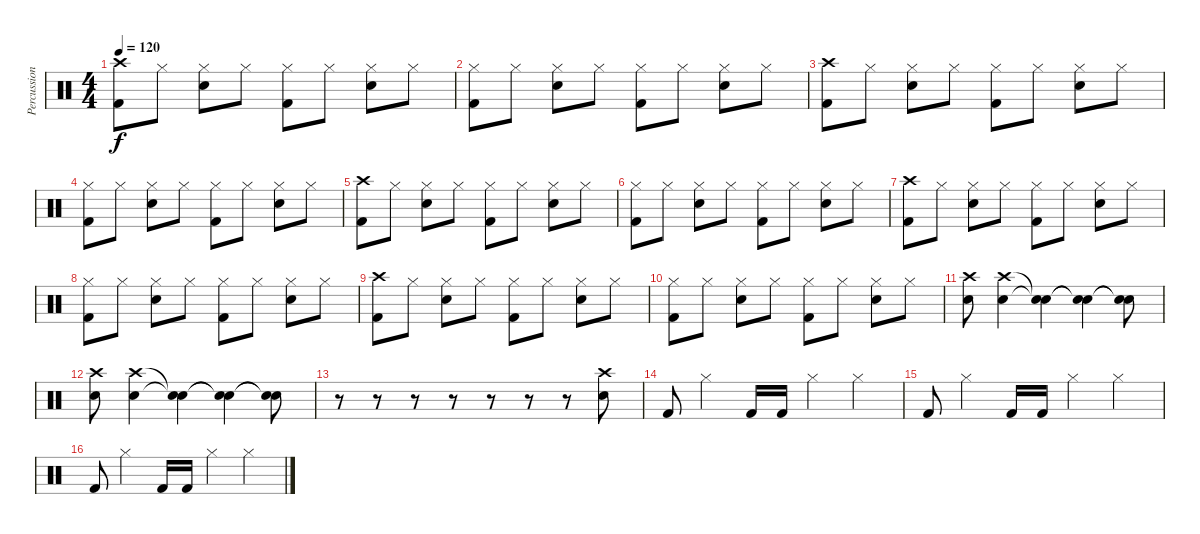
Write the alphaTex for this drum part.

\track ("Percussion" "Percussion") {instrument percussion}
\staff {score}
\articulation defaults
\ts (4 4)
\tempo 120
\clef neutral
\ks c
("Crash high (hit)" "Kick (hit) 2").8{dy f} "Hi-Hat (closed)".8 ("Hi-Hat (closed)" "Electric Snare (hit)").8 "Hi-Hat (closed)".8 ("Hi-Hat (closed)" "Kick (hit) 2").8 "Hi-Hat (closed)".8 ("Hi-Hat (closed)" "Electric Snare (hit)").8 "Hi-Hat (closed)".8 |
("Hi-Hat (closed)" "Kick (hit) 2").8 "Hi-Hat (closed)".8 ("Hi-Hat (closed)" "Electric Snare (hit)").8 "Hi-Hat (closed)".8 ("Hi-Hat (closed)" "Kick (hit) 2").8 "Hi-Hat (closed)".8 ("Hi-Hat (closed)" "Electric Snare (hit)").8 "Hi-Hat (closed)".8 |
("Crash high (hit)" "Kick (hit) 2").8 "Hi-Hat (closed)".8 ("Hi-Hat (closed)" "Electric Snare (hit)").8 "Hi-Hat (closed)".8 ("Hi-Hat (closed)" "Kick (hit) 2").8 "Hi-Hat (closed)".8 ("Hi-Hat (closed)" "Electric Snare (hit)").8 "Hi-Hat (closed)".8 |
("Hi-Hat (closed)" "Kick (hit) 2").8 "Hi-Hat (closed)".8 ("Hi-Hat (closed)" "Electric Snare (hit)").8 "Hi-Hat (closed)".8 ("Hi-Hat (closed)" "Kick (hit) 2").8 "Hi-Hat (closed)".8 ("Hi-Hat (closed)" "Electric Snare (hit)").8 "Hi-Hat (closed)".8 |
("Crash high (hit)" "Kick (hit) 2").8 "Hi-Hat (closed)".8 ("Hi-Hat (closed)" "Electric Snare (hit)").8 "Hi-Hat (closed)".8 ("Hi-Hat (closed)" "Kick (hit) 2").8 "Hi-Hat (closed)".8 ("Hi-Hat (closed)" "Electric Snare (hit)").8 "Hi-Hat (closed)".8 |
("Hi-Hat (closed)" "Kick (hit) 2").8 "Hi-Hat (closed)".8 ("Hi-Hat (closed)" "Electric Snare (hit)").8 "Hi-Hat (closed)".8 ("Hi-Hat (closed)" "Kick (hit) 2").8 "Hi-Hat (closed)".8 ("Hi-Hat (closed)" "Electric Snare (hit)").8 "Hi-Hat (closed)".8 |
("Crash high (hit)" "Kick (hit) 2").8 "Hi-Hat (closed)".8 ("Hi-Hat (closed)" "Electric Snare (hit)").8 "Hi-Hat (closed)".8 ("Hi-Hat (closed)" "Kick (hit) 2").8 "Hi-Hat (closed)".8 ("Hi-Hat (closed)" "Electric Snare (hit)").8 "Hi-Hat (closed)".8 |
("Hi-Hat (closed)" "Kick (hit) 2").8 "Hi-Hat (closed)".8 ("Hi-Hat (closed)" "Electric Snare (hit)").8 "Hi-Hat (closed)".8 ("Hi-Hat (closed)" "Kick (hit) 2").8 "Hi-Hat (closed)".8 ("Hi-Hat (closed)" "Electric Snare (hit)").8 "Hi-Hat (closed)".8 |
("Crash high (hit)" "Kick (hit) 2").8 "Hi-Hat (closed)".8 ("Hi-Hat (closed)" "Electric Snare (hit)").8 "Hi-Hat (closed)".8 ("Hi-Hat (closed)" "Kick (hit) 2").8 "Hi-Hat (closed)".8 ("Hi-Hat (closed)" "Electric Snare (hit)").8 "Hi-Hat (closed)".8 |
("Hi-Hat (closed)" "Kick (hit) 2").8 "Hi-Hat (closed)".8 ("Hi-Hat (closed)" "Electric Snare (hit)").8 "Hi-Hat (closed)".8 ("Hi-Hat (closed)" "Kick (hit) 2").8 "Hi-Hat (closed)".8 ("Hi-Hat (closed)" "Electric Snare (hit)").8 "Hi-Hat (closed)".8 |
("Snare (hit) 2" "Crash high (hit)").8 ("Snare (hit) 2" "Crash high (hit)").4 ("Snare (hit)"{t} "Snare (hit)"{t}).4 ("Snare (hit)"{t} "Snare (hit)"{t}).4 ("Snare (hit)"{t} "Snare (hit)"{t}).8 |
("Snare (hit) 2" "Crash high (hit)").8 ("Snare (hit) 2" "Crash high (hit)").4 ("Snare (hit)"{t} "Snare (hit)"{t}).4 ("Snare (hit)"{t} "Snare (hit)"{t}).4 ("Snare (hit)"{t} "Snare (hit)"{t}).8 |
r.8 r.8 r.8 r.8 r.8 r.8 r.8 ("Snare (hit) 2" "Crash high (hit)").8 |
"Kick (hit) 2".8 "Hi-Hat (closed)".4 "Kick (hit) 2".16 "Kick (hit) 2".16 "Hi-Hat (closed)".4 "Hi-Hat (closed)".4 |
"Kick (hit) 2".8 "Hi-Hat (closed)".4 "Kick (hit) 2".16 "Kick (hit) 2".16 "Hi-Hat (closed)".4 "Hi-Hat (closed)".4 |
"Kick (hit) 2".8 "Hi-Hat (closed)".4 "Kick (hit) 2".16 "Kick (hit) 2".16 "Hi-Hat (closed)".4 "Hi-Hat (closed)".4
